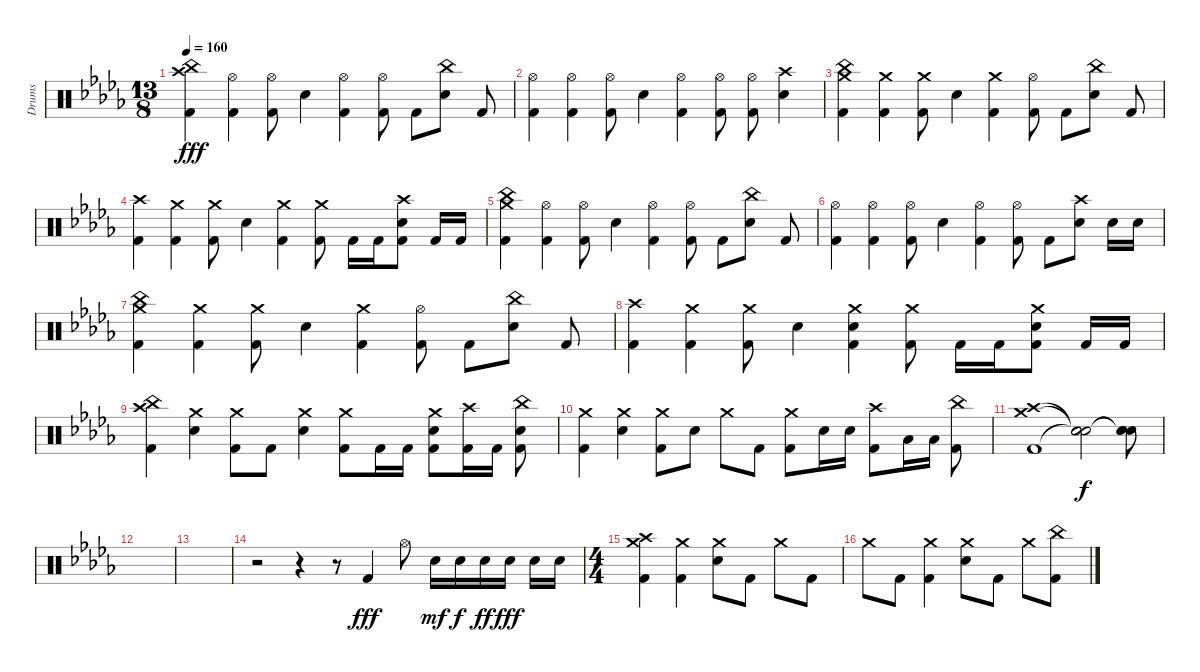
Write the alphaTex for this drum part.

\track ("Drums" "Drums") {instrument percussion}
\staff {score}
\articulation defaults
\ts (13 8)
\tempo 160
\clef neutral
\ks bbminor
("Crash high (hit)" "China (hit)" "Kick (hit) 2").4{dy fff} ("Hi-Hat (open)" "Kick (hit) 2").4 ("Hi-Hat (open)" "Kick (hit) 2").8 "Snare (hit) 2".4 ("Hi-Hat (open)" "Kick (hit) 2").4 ("Hi-Hat (open)" "Kick (hit) 2").8 "Kick (hit) 2".8 ("China (hit)" "Snare (hit) 2").8 "Kick (hit) 2".8 |
("Hi-Hat (open)" "Kick (hit) 2").4 ("Hi-Hat (open)" "Kick (hit) 2").4 ("Hi-Hat (open)" "Kick (hit) 2").8 "Snare (hit) 2".4 ("Hi-Hat (open)" "Kick (hit) 2").4 ("Hi-Hat (open)" "Kick (hit) 2").8 ("Hi-Hat (open)" "Kick (hit) 2").8 ("Crash high (hit)" "Snare (hit) 2").4 |
("Crash medium (hit)" "China (hit)" "Kick (hit) 2").4 ("Crash medium (hit)" "Kick (hit) 2").4 ("Crash medium (hit)" "Kick (hit) 2").8 "Snare (hit) 2".4 ("Crash medium (hit)" "Kick (hit) 2").4 ("Hi-Hat (open)" "Kick (hit) 2").8 "Kick (hit) 2".8 ("China (hit)" "Snare (hit) 2").8 "Kick (hit) 2".8 |
("Crash high (hit)" "Kick (hit) 2").4 ("Crash medium (hit)" "Kick (hit) 2").4 ("Crash medium (hit)" "Kick (hit) 2").8 "Snare (hit) 2".4 ("Crash medium (hit)" "Kick (hit) 2").4 ("Crash medium (hit)" "Kick (hit) 2").8 "Kick (hit) 2".16 "Kick (hit) 2".16 ("Crash high (hit)" "Snare (hit) 2" "Kick (hit) 2").8 "Kick (hit) 2".16 "Kick (hit) 2".16 |
("Crash medium (hit)" "China (hit)" "Kick (hit) 2").4 ("Hi-Hat (open)" "Kick (hit) 2").4 ("Hi-Hat (open)" "Kick (hit) 2").8 "Snare (hit) 2".4 ("Hi-Hat (open)" "Kick (hit) 2").4 ("Hi-Hat (open)" "Kick (hit) 2").8 "Kick (hit) 2".8 ("China (hit)" "Snare (hit) 2").8 "Kick (hit) 2".8 |
("Hi-Hat (open)" "Kick (hit) 2").4 ("Hi-Hat (open)" "Kick (hit) 2").4 ("Hi-Hat (open)" "Kick (hit) 2").8 "Snare (hit) 2".4 ("Hi-Hat (open)" "Kick (hit) 2").4 ("Hi-Hat (open)" "Kick (hit) 2").8 "Kick (hit) 2".8 ("Crash high (hit)" "Snare (hit) 2").8 "Snare (hit) 2".16 "Snare (hit) 2".16 |
("Crash medium (hit)" "China (hit)" "Kick (hit) 2").4 ("Crash medium (hit)" "Kick (hit) 2").4 ("Crash medium (hit)" "Kick (hit) 2").8 "Snare (hit) 2".4 ("Crash medium (hit)" "Kick (hit) 2").4 ("Hi-Hat (open)" "Kick (hit) 2").8 "Kick (hit) 2".8 ("China (hit)" "Snare (hit) 2").8 "Kick (hit) 2".8 |
("Crash high (hit)" "Kick (hit) 2").4 ("Crash medium (hit)" "Kick (hit) 2").4 ("Crash medium (hit)" "Kick (hit) 2").8 "Snare (hit) 2".4 ("Crash medium (hit)" "Snare (hit) 2" "Kick (hit) 2").4 ("Crash medium (hit)" "Kick (hit) 2").8 "Kick (hit) 2".16 "Kick (hit) 2".16 ("Crash medium (hit)" "Snare (hit) 2" "Kick (hit) 2").8 "Kick (hit) 2".16 "Kick (hit) 2".16 |
("Crash high (hit)" "China (hit)" "Kick (hit) 2").4 ("Crash medium (hit)" "Snare (hit) 2").4 ("Crash medium (hit)" "Kick (hit) 2").8 "Kick (hit) 2".8 ("Crash medium (hit)" "Snare (hit) 2").4 ("Crash medium (hit)" "Kick (hit) 2").8 "Kick (hit) 2".16 "Kick (hit) 2".16 ("Crash medium (hit)" "Snare (hit) 2" "Kick (hit) 2").8 ("Crash high (hit)" "Kick (hit) 2").16 "Kick (hit) 2".16 ("China (hit)" "Snare (hit) 2" "Kick (hit) 2").8 |
("Crash medium (hit)" "Kick (hit) 2").4 ("Crash medium (hit)" "Snare (hit) 2").4 ("Crash medium (hit)" "Kick (hit) 2").8 "Snare (hit) 2".8 "Crash medium (hit)".8 "Kick (hit) 2".8 ("Crash medium (hit)" "Kick (hit) 2").8 "Snare (hit) 2".16 "Snare (hit) 2".16 ("Crash high (hit)" "Kick (hit) 2").8 "Low Floor Tom (hit)".16 "Low Floor Tom (hit)".16 ("China (hit)" "Kick (hit) 2").8 |
("Crash high (hit)" "Crash medium (hit)" "Kick (hit) 2").1 ("Snare (hit)"{t} "Snare (hit)"{t} "Snare (hit)"{t}).2{dy f} ("Snare (hit)"{t} "Snare (hit)"{t} "Snare (hit)"{t}).8 |
|
|
r.2 r.4 r.8 "Kick (hit) 2".4{dy fff} "Hi-Hat (open)".8 "Snare (hit) 2".16{dy mf} "Snare (hit) 2".16{dy f} "Snare (hit) 2".16{dy ff} "Snare (hit) 2".16{dy fff} "Snare (hit) 2".16 "Snare (hit) 2".16 |
\ts (4 4)
("Crash high (hit)" "Crash medium (hit)" "Kick (hit) 2").4 ("Crash medium (hit)" "Kick (hit) 2").4 ("Crash medium (hit)" "Snare (hit) 2").8 "Kick (hit) 2".8 "Crash medium (hit)".8 "Kick (hit) 2".8 |
"Crash medium (hit)".8 "Kick (hit) 2".8 ("Crash medium (hit)" "Kick (hit) 2").4 ("Crash medium (hit)" "Snare (hit) 2").8 "Kick (hit) 2".8 "Crash medium (hit)".8 ("China (hit)" "Kick (hit) 2").8
